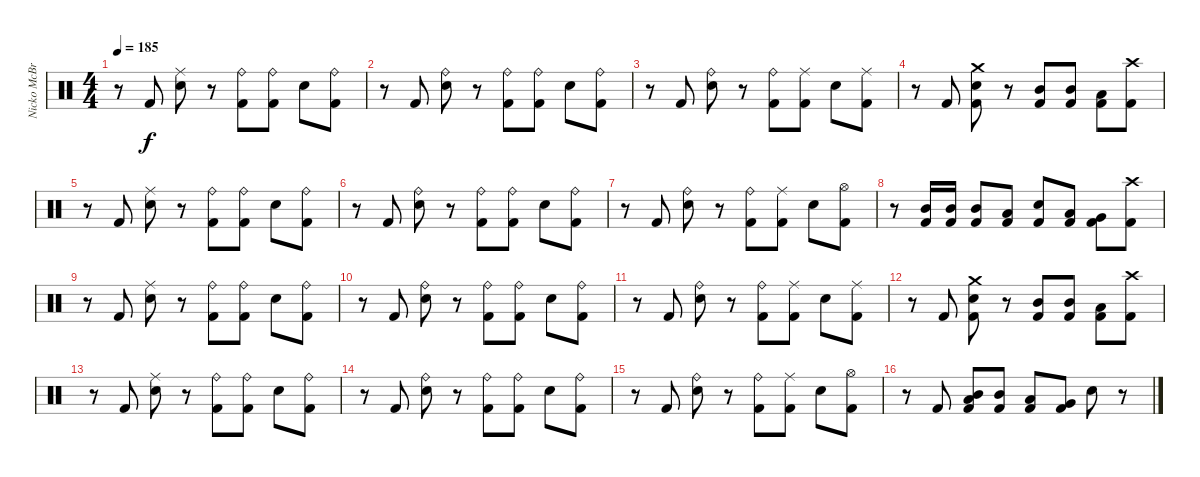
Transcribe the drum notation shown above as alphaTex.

\track ("Nicko McBrain" "Nicko McBr") {instrument percussion}
\staff {score}
\articulation defaults
\ts (4 4)
\tempo 185
\clef neutral
\ks c
r.8{dy f} "Kick (hit) 2".8 ("Ride (middle)" "Snare (hit) 2").8 r.8 ("Ride (bell)" "Kick (hit) 2").8 ("Ride (bell)" "Kick (hit) 2").8 "Snare (hit) 2".8 ("Ride (bell)" "Kick (hit) 2").8 |
r.8 "Kick (hit) 2".8 ("Ride (bell)" "Snare (hit) 2").8 r.8 ("Ride (bell)" "Kick (hit) 2").8 ("Ride (bell)" "Kick (hit) 2").8 "Snare (hit) 2".8 ("Ride (bell)" "Kick (hit) 2").8 |
r.8 "Kick (hit) 2".8 ("Ride (bell)" "Snare (hit) 2").8 r.8 ("Ride (bell)" "Kick (hit) 2").8 ("Ride (middle)" "Kick (hit) 2").8 "Snare (hit) 2".8 ("Ride (middle)" "Kick (hit) 2").8 |
r.8 "Kick (hit) 2".8 ("Crash medium (hit)" "Snare (hit) 2" "Kick (hit) 2").8 r.8 ("Mid Tom (hit)" "Kick (hit) 2").8 ("Mid Tom (hit)" "Kick (hit) 2").8 ("Low Tom (hit)" "Kick (hit) 2").8 ("Crash high (hit)" "Kick (hit) 2").8 |
r.8 "Kick (hit) 2".8 ("Ride (middle)" "Snare (hit) 2").8 r.8 ("Ride (bell)" "Kick (hit) 2").8 ("Ride (bell)" "Kick (hit) 2").8 "Snare (hit) 2".8 ("Ride (bell)" "Kick (hit) 2").8 |
r.8 "Kick (hit) 2".8 ("Ride (bell)" "Snare (hit) 2").8 r.8 ("Ride (bell)" "Kick (hit) 2").8 ("Ride (bell)" "Kick (hit) 2").8 "Snare (hit) 2".8 ("Ride (bell)" "Kick (hit) 2").8 |
r.8 "Kick (hit) 2".8 ("Ride (bell)" "Snare (hit) 2").8 r.8 ("Ride (bell)" "Kick (hit) 2").8 ("Ride (middle)" "Kick (hit) 2").8 "Snare (hit) 2".8 ("Hi-Hat (open)" "Kick (hit) 2").8 |
r.8 ("Mid Tom (hit)" "Kick (hit) 2").16 ("Mid Tom (hit)" "Kick (hit) 2").16 ("Mid Tom (hit)" "Kick (hit) 2").8 ("Low Tom (hit)" "Kick (hit) 2").8 ("Snare (hit) 2" "Kick (hit) 2").8 ("Low Tom (hit)" "Kick (hit) 2").8 ("Very Low Tom (hit)" "Kick (hit) 2").8 ("Crash high (hit)" "Kick (hit) 2").8 |
r.8 "Kick (hit) 2".8 ("Ride (middle)" "Snare (hit) 2").8 r.8 ("Ride (bell)" "Kick (hit) 2").8 ("Ride (bell)" "Kick (hit) 2").8 "Snare (hit) 2".8 ("Ride (bell)" "Kick (hit) 2").8 |
r.8 "Kick (hit) 2".8 ("Ride (bell)" "Snare (hit) 2").8 r.8 ("Ride (bell)" "Kick (hit) 2").8 ("Ride (bell)" "Kick (hit) 2").8 "Snare (hit) 2".8 ("Ride (bell)" "Kick (hit) 2").8 |
r.8 "Kick (hit) 2".8 ("Ride (bell)" "Snare (hit) 2").8 r.8 ("Ride (bell)" "Kick (hit) 2").8 ("Ride (middle)" "Kick (hit) 2").8 "Snare (hit) 2".8 ("Ride (middle)" "Kick (hit) 2").8 |
r.8 "Kick (hit) 2".8 ("Crash medium (hit)" "Snare (hit) 2" "Kick (hit) 2").8 r.8 ("Mid Tom (hit)" "Kick (hit) 2").8 ("Mid Tom (hit)" "Kick (hit) 2").8 ("Low Tom (hit)" "Kick (hit) 2").8 ("Crash high (hit)" "Kick (hit) 2").8 |
r.8 "Kick (hit) 2".8 ("Ride (middle)" "Snare (hit) 2").8 r.8 ("Ride (bell)" "Kick (hit) 2").8 ("Ride (bell)" "Kick (hit) 2").8 "Snare (hit) 2".8 ("Ride (bell)" "Kick (hit) 2").8 |
r.8 "Kick (hit) 2".8 ("Ride (bell)" "Snare (hit) 2").8 r.8 ("Ride (bell)" "Kick (hit) 2").8 ("Ride (bell)" "Kick (hit) 2").8 "Snare (hit) 2".8 ("Ride (bell)" "Kick (hit) 2").8 |
r.8 "Kick (hit) 2".8 ("Ride (bell)" "Snare (hit) 2").8 r.8 ("Ride (bell)" "Kick (hit) 2").8 ("Ride (middle)" "Kick (hit) 2").8 "Snare (hit) 2".8 ("Hi-Hat (open)" "Kick (hit) 2").8 |
r.8 "Kick (hit) 2".8 ("Mid Tom (hit)" "Low Floor Tom (hit)" "Kick (hit) 2").8 ("Mid Tom (hit)" "Kick (hit) 2").8 ("Low Tom (hit)" "Kick (hit) 2").8 ("Very Low Tom (hit)" "Kick (hit) 2").8 "Snare (hit) 2".8 r.8
